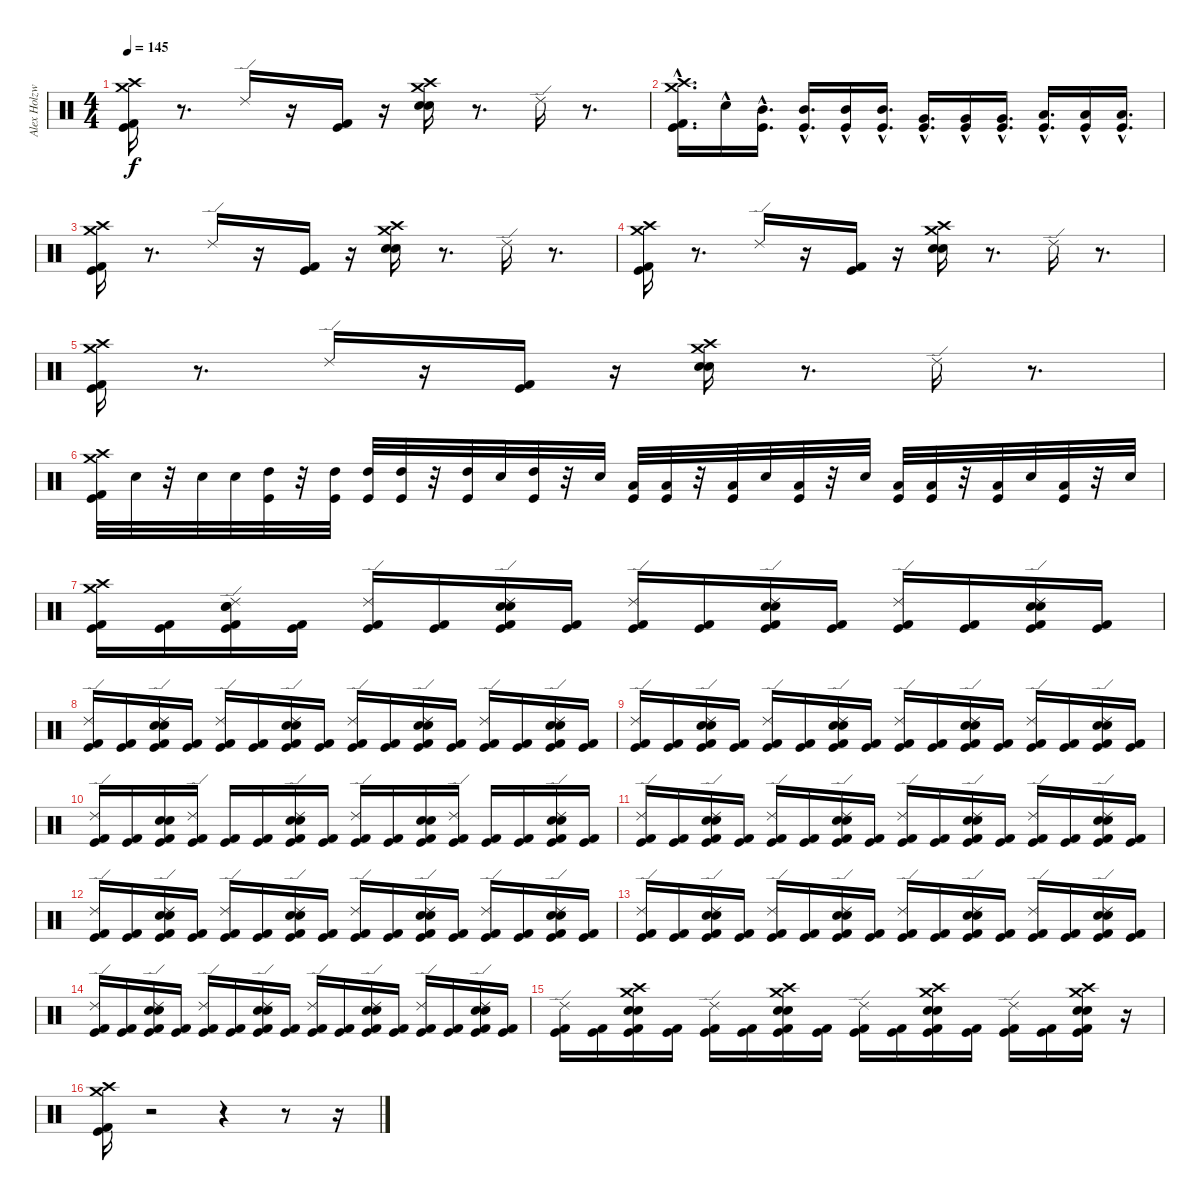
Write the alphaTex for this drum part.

\track ("Alex Holzwarth" "Alex Holzw") {instrument percussion}
\staff {score}
\articulation defaults
\ts (4 4)
\tempo 145
\clef neutral
\ks c
("Crash high (hit)" "Crash medium (hit)" "Kick (hit) 2" "Kick (hit)").16{dy f} r.8{d} "Ride (edge) 2".16 r.16 ("Kick (hit) 2" "Kick (hit)").16 r.16 ("Crash medium (hit)" "Crash high (hit)" "Electric Snare (hit)" "Snare (hit) 2").16 r.8{d} "Ride (edge) 2".16 r.8{d} |
("Crash high (hit)"{hac} "Crash medium (hit)"{hac} "Kick (hit) 2"{hac} "Kick (hit)"{hac}).16{d} "Snare (hit)"{hac}.16 ("Mid Tom (hit)"{hac} "Kick (hit)"{hac}).16{d} ("Mid Tom (hit)"{hac} "Kick (hit)"{hac}).16{d} ("Mid Tom (hit)"{hac} "Kick (hit)"{hac}).16 ("Mid Tom (hit)"{hac} "Kick (hit)"{hac}).16{d} ("Very Low Tom (hit)"{hac} "Kick (hit)"{hac}).16{d} ("Very Low Tom (hit)"{hac} "Kick (hit)"{hac}).16 ("Very Low Tom (hit)"{hac} "Kick (hit)"{hac}).16{d} ("Low Floor Tom (hit)"{hac} "Kick (hit)"{hac}).16{d} ("Low Floor Tom (hit)"{hac} "Kick (hit)"{hac}).16 ("Low Floor Tom (hit)"{hac} "Kick (hit)"{hac}).16{d} |
("Crash high (hit)" "Crash medium (hit)" "Kick (hit) 2" "Kick (hit)").16 r.8{d} "Ride (edge) 2".16 r.16 ("Kick (hit) 2" "Kick (hit)").16 r.16 ("Crash high (hit)" "Crash medium (hit)" "Electric Snare (hit)" "Snare (hit) 2").16 r.8{d} "Ride (edge) 2".16 r.8{d} |
("Crash high (hit)" "Crash medium (hit)" "Kick (hit) 2" "Kick (hit)").16 r.8{d} "Ride (edge) 2".16 r.16 ("Kick (hit) 2" "Kick (hit)").16 r.16 ("Crash medium (hit)" "Crash high (hit)" "Electric Snare (hit)" "Snare (hit) 2").16 r.8{d} "Ride (edge) 2".16 r.8{d} |
("Crash high (hit)" "Crash medium (hit)" "Kick (hit) 2" "Kick (hit)").16 r.8{d} "Ride (edge) 2".16 r.16 ("Kick (hit) 2" "Kick (hit)").16 r.16 ("Crash medium (hit)" "Crash high (hit)" "Electric Snare (hit)" "Snare (hit) 2").16 r.8{d} "Ride (edge) 2".16 r.8{d} |
("Crash high (hit)" "Crash medium (hit)" "Kick (hit) 2" "Kick (hit)").32 "Snare (hit)".32 r.32 "Snare (hit)".32 "Snare (hit)".32 ("High Tom (hit)" "Kick (hit)").32 r.32 ("High Tom (hit)" "Kick (hit)").32 ("High Tom (hit)" "Kick (hit)").32 ("High Tom (hit)" "Kick (hit)").32 r.32 ("High Tom (hit)" "Kick (hit)").32 "Snare (hit)".32 ("High Tom (hit)" "Kick (hit)").32 r.32 "Snare (hit)".32 ("Low Tom (hit)" "Kick (hit)").32 ("Low Tom (hit)" "Kick (hit)").32 r.32 ("Low Tom (hit)" "Kick (hit)").32 "Snare (hit)".32 ("Low Tom (hit)" "Kick (hit)").32 r.32 "Snare (hit)".32 ("Low Floor Tom (hit)" "Kick (hit)").32 ("Low Floor Tom (hit)" "Kick (hit)").32 r.32 ("Low Floor Tom (hit)" "Kick (hit)").32 "Snare (hit)".32 ("Low Floor Tom (hit)" "Kick (hit)").32 r.32 "Snare (hit)".32 |
("Crash high (hit)" "Crash medium (hit)" "Kick (hit) 2" "Kick (hit)").16 ("Kick (hit) 2" "Kick (hit)").16 ("Ride (edge) 2" "Electric Snare (hit)" "Snare (hit) 2" "Kick (hit) 2" "Kick (hit)").16 ("Kick (hit) 2" "Kick (hit)").16 ("Ride (edge) 2" "Kick (hit) 2" "Kick (hit)").16 ("Kick (hit) 2" "Kick (hit)").16 ("Ride (edge) 2" "Electric Snare (hit)" "Snare (hit) 2" "Kick (hit) 2" "Kick (hit)").16 ("Kick (hit) 2" "Kick (hit)").16 ("Ride (edge) 2" "Kick (hit) 2" "Kick (hit)").16 ("Kick (hit) 2" "Kick (hit)").16 ("Ride (edge) 2" "Electric Snare (hit)" "Snare (hit) 2" "Kick (hit) 2" "Kick (hit)").16 ("Kick (hit) 2" "Kick (hit)").16 ("Ride (edge) 2" "Kick (hit) 2" "Kick (hit)").16 ("Kick (hit) 2" "Kick (hit)").16 ("Ride (edge) 2" "Electric Snare (hit)" "Snare (hit) 2" "Kick (hit) 2" "Kick (hit)").16 ("Kick (hit) 2" "Kick (hit)").16 |
("Ride (edge) 2" "Kick (hit) 2" "Kick (hit)").16 ("Kick (hit) 2" "Kick (hit)").16 ("Ride (edge) 2" "Electric Snare (hit)" "Snare (hit) 2" "Kick (hit) 2" "Kick (hit)").16 ("Kick (hit) 2" "Kick (hit)").16 ("Ride (edge) 2" "Kick (hit) 2" "Kick (hit)").16 ("Kick (hit) 2" "Kick (hit)").16 ("Ride (edge) 2" "Electric Snare (hit)" "Snare (hit) 2" "Kick (hit) 2" "Kick (hit)").16 ("Kick (hit) 2" "Kick (hit)").16 ("Ride (edge) 2" "Kick (hit) 2" "Kick (hit)").16 ("Kick (hit) 2" "Kick (hit)").16 ("Ride (edge) 2" "Electric Snare (hit)" "Snare (hit) 2" "Kick (hit) 2" "Kick (hit)").16 ("Kick (hit) 2" "Kick (hit)").16 ("Ride (edge) 2" "Kick (hit) 2" "Kick (hit)").16 ("Kick (hit) 2" "Kick (hit)").16 ("Ride (edge) 2" "Electric Snare (hit)" "Snare (hit) 2" "Kick (hit) 2" "Kick (hit)").16 ("Kick (hit) 2" "Kick (hit)").16 |
("Ride (edge) 2" "Kick (hit) 2" "Kick (hit)").16 ("Kick (hit) 2" "Kick (hit)").16 ("Ride (edge) 2" "Electric Snare (hit)" "Snare (hit) 2" "Kick (hit) 2" "Kick (hit)").16 ("Kick (hit) 2" "Kick (hit)").16 ("Ride (edge) 2" "Kick (hit) 2" "Kick (hit)").16 ("Kick (hit) 2" "Kick (hit)").16 ("Ride (edge) 2" "Electric Snare (hit)" "Snare (hit) 2" "Kick (hit) 2" "Kick (hit)").16 ("Kick (hit) 2" "Kick (hit)").16 ("Ride (edge) 2" "Kick (hit) 2" "Kick (hit)").16 ("Kick (hit) 2" "Kick (hit)").16 ("Ride (edge) 2" "Electric Snare (hit)" "Snare (hit) 2" "Kick (hit) 2" "Kick (hit)").16 ("Kick (hit) 2" "Kick (hit)").16 ("Ride (edge) 2" "Kick (hit) 2" "Kick (hit)").16 ("Kick (hit) 2" "Kick (hit)").16 ("Ride (edge) 2" "Electric Snare (hit)" "Snare (hit) 2" "Kick (hit) 2" "Kick (hit)").16 ("Kick (hit) 2" "Kick (hit)").16 |
("Ride (edge) 2" "Kick (hit) 2" "Kick (hit)").16 ("Kick (hit) 2" "Kick (hit)").16 ("Electric Snare (hit)" "Snare (hit) 2" "Kick (hit) 2" "Kick (hit)").16 ("Ride (edge) 2" "Kick (hit) 2" "Kick (hit)").16 ("Kick (hit) 2" "Kick (hit)").16 ("Kick (hit) 2" "Kick (hit)").16 ("Ride (edge) 2" "Electric Snare (hit)" "Snare (hit) 2" "Kick (hit) 2" "Kick (hit)").16 ("Kick (hit) 2" "Kick (hit)").16 ("Ride (edge) 2" "Kick (hit) 2" "Kick (hit)").16 ("Kick (hit) 2" "Kick (hit)").16 ("Electric Snare (hit)" "Snare (hit) 2" "Kick (hit) 2" "Kick (hit)").16 ("Ride (edge) 2" "Kick (hit) 2" "Kick (hit)").16 ("Kick (hit) 2" "Kick (hit)").16 ("Kick (hit) 2" "Kick (hit)").16 ("Ride (edge) 2" "Electric Snare (hit)" "Snare (hit) 2" "Kick (hit) 2" "Kick (hit)").16 ("Kick (hit) 2" "Kick (hit)").16 |
("Ride (edge) 2" "Kick (hit) 2" "Kick (hit)").16 ("Kick (hit) 2" "Kick (hit)").16 ("Ride (edge) 2" "Electric Snare (hit)" "Snare (hit) 2" "Kick (hit) 2" "Kick (hit)").16 ("Kick (hit) 2" "Kick (hit)").16 ("Ride (edge) 2" "Kick (hit) 2" "Kick (hit)").16 ("Kick (hit) 2" "Kick (hit)").16 ("Ride (edge) 2" "Electric Snare (hit)" "Snare (hit) 2" "Kick (hit) 2" "Kick (hit)").16 ("Kick (hit) 2" "Kick (hit)").16 ("Ride (edge) 2" "Kick (hit) 2" "Kick (hit)").16 ("Kick (hit) 2" "Kick (hit)").16 ("Ride (edge) 2" "Electric Snare (hit)" "Snare (hit) 2" "Kick (hit) 2" "Kick (hit)").16 ("Kick (hit) 2" "Kick (hit)").16 ("Ride (edge) 2" "Kick (hit) 2" "Kick (hit)").16 ("Kick (hit) 2" "Kick (hit)").16 ("Ride (edge) 2" "Electric Snare (hit)" "Snare (hit) 2" "Kick (hit) 2" "Kick (hit)").16 ("Kick (hit) 2" "Kick (hit)").16 |
("Ride (edge) 2" "Kick (hit) 2" "Kick (hit)").16 ("Kick (hit) 2" "Kick (hit)").16 ("Ride (edge) 2" "Electric Snare (hit)" "Snare (hit) 2" "Kick (hit) 2" "Kick (hit)").16 ("Kick (hit) 2" "Kick (hit)").16 ("Ride (edge) 2" "Kick (hit) 2" "Kick (hit)").16 ("Kick (hit) 2" "Kick (hit)").16 ("Ride (edge) 2" "Electric Snare (hit)" "Snare (hit) 2" "Kick (hit) 2" "Kick (hit)").16 ("Kick (hit) 2" "Kick (hit)").16 ("Ride (edge) 2" "Kick (hit) 2" "Kick (hit)").16 ("Kick (hit) 2" "Kick (hit)").16 ("Ride (edge) 2" "Electric Snare (hit)" "Snare (hit) 2" "Kick (hit) 2" "Kick (hit)").16 ("Kick (hit) 2" "Kick (hit)").16 ("Ride (edge) 2" "Kick (hit) 2" "Kick (hit)").16 ("Kick (hit) 2" "Kick (hit)").16 ("Ride (edge) 2" "Electric Snare (hit)" "Snare (hit) 2" "Kick (hit) 2" "Kick (hit)").16 ("Kick (hit) 2" "Kick (hit)").16 |
("Ride (edge) 2" "Kick (hit) 2" "Kick (hit)").16 ("Kick (hit) 2" "Kick (hit)").16 ("Ride (edge) 2" "Electric Snare (hit)" "Snare (hit) 2" "Kick (hit) 2" "Kick (hit)").16 ("Kick (hit) 2" "Kick (hit)").16 ("Ride (edge) 2" "Kick (hit) 2" "Kick (hit)").16 ("Kick (hit) 2" "Kick (hit)").16 ("Ride (edge) 2" "Electric Snare (hit)" "Snare (hit) 2" "Kick (hit) 2" "Kick (hit)").16 ("Kick (hit) 2" "Kick (hit)").16 ("Ride (edge) 2" "Kick (hit) 2" "Kick (hit)").16 ("Kick (hit) 2" "Kick (hit)").16 ("Ride (edge) 2" "Electric Snare (hit)" "Snare (hit) 2" "Kick (hit) 2" "Kick (hit)").16 ("Kick (hit) 2" "Kick (hit)").16 ("Ride (edge) 2" "Kick (hit) 2" "Kick (hit)").16 ("Kick (hit) 2" "Kick (hit)").16 ("Ride (edge) 2" "Electric Snare (hit)" "Snare (hit) 2" "Kick (hit) 2" "Kick (hit)").16 ("Kick (hit) 2" "Kick (hit)").16 |
("Ride (edge) 2" "Kick (hit) 2" "Kick (hit)").16 ("Kick (hit) 2" "Kick (hit)").16 ("Ride (edge) 2" "Electric Snare (hit)" "Snare (hit) 2" "Kick (hit) 2" "Kick (hit)").16 ("Kick (hit) 2" "Kick (hit)").16 ("Ride (edge) 2" "Kick (hit) 2" "Kick (hit)").16 ("Kick (hit) 2" "Kick (hit)").16 ("Ride (edge) 2" "Electric Snare (hit)" "Snare (hit) 2" "Kick (hit) 2" "Kick (hit)").16 ("Kick (hit) 2" "Kick (hit)").16 ("Ride (edge) 2" "Kick (hit) 2" "Kick (hit)").16 ("Kick (hit) 2" "Kick (hit)").16 ("Ride (edge) 2" "Electric Snare (hit)" "Snare (hit) 2" "Kick (hit) 2" "Kick (hit)").16 ("Kick (hit) 2" "Kick (hit)").16 ("Ride (edge) 2" "Kick (hit) 2" "Kick (hit)").16 ("Kick (hit) 2" "Kick (hit)").16 ("Ride (edge) 2" "Electric Snare (hit)" "Snare (hit) 2" "Kick (hit) 2" "Kick (hit)").16 ("Kick (hit) 2" "Kick (hit)").16 |
("Ride (edge) 2" "Kick (hit) 2" "Kick (hit)").16 ("Kick (hit) 2" "Kick (hit)").16 ("Crash high (hit)" "Crash medium (hit)" "Electric Snare (hit)" "Snare (hit) 2" "Kick (hit) 2" "Kick (hit)").16 ("Kick (hit) 2" "Kick (hit)").16 ("Ride (edge) 2" "Kick (hit) 2" "Kick (hit)").16 ("Kick (hit) 2" "Kick (hit)").16 ("Crash medium (hit)" "Crash high (hit)" "Electric Snare (hit)" "Snare (hit) 2" "Kick (hit) 2" "Kick (hit)").16 ("Kick (hit) 2" "Kick (hit)").16 ("Ride (edge) 2" "Kick (hit) 2" "Kick (hit)").16 ("Kick (hit) 2" "Kick (hit)").16 ("Crash high (hit)" "Crash medium (hit)" "Electric Snare (hit)" "Snare (hit) 2" "Kick (hit) 2" "Kick (hit)").16 ("Kick (hit) 2" "Kick (hit)").16 ("Ride (edge) 2" "Kick (hit) 2" "Kick (hit)").16 ("Kick (hit) 2" "Kick (hit)").16 ("Crash high (hit)" "Crash medium (hit)" "Electric Snare (hit)" "Snare (hit) 2" "Kick (hit) 2" "Kick (hit)").16 r.16 |
("Crash high (hit)" "Crash medium (hit)" "Kick (hit) 2" "Kick (hit)").16 r.2 r.4 r.8 r.16
